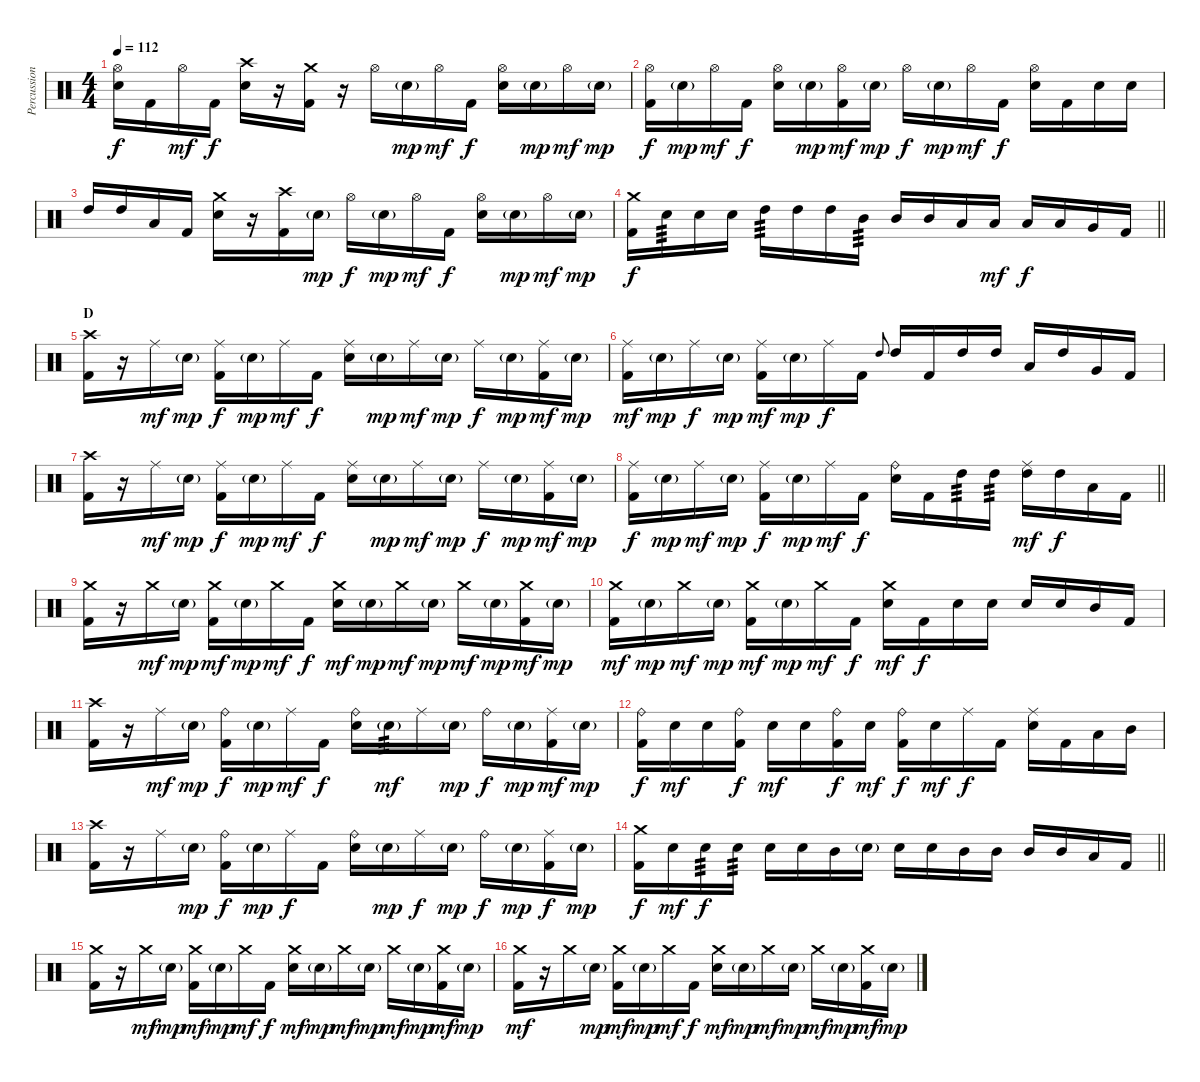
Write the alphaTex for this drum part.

\track ("Percussion" "Percussion") {instrument percussion}
\staff {score}
\articulation defaults
\ts (4 4)
\tempo 112
\clef neutral
\ks c
("Hi-Hat (open)" "Snare (hit) 2").16{dy f} "Kick (hit) 2".16 "Hi-Hat (open)".16{dy mf} "Kick (hit) 2".16{dy f} ("Crash high (hit)" "Snare (hit) 2").16 r.16 ("Crash medium (hit)" "Kick (hit) 2").16 r.16 "Hi-Hat (open)".16 "Snare (hit) 2"{g}.16{dy mp} "Hi-Hat (open)".16{dy mf} "Kick (hit) 2".16{dy f} ("Hi-Hat (open)" "Snare (hit) 2").16 "Snare (hit) 2"{g}.16{dy mp} "Hi-Hat (open)".16{dy mf} "Snare (hit) 2"{g}.16{dy mp} |
("Hi-Hat (open)" "Kick (hit) 2").16{dy f} "Snare (hit) 2"{g}.16{dy mp} "Hi-Hat (open)".16{dy mf} "Kick (hit) 2".16{dy f} ("Hi-Hat (open)" "Snare (hit) 2").16 "Snare (hit) 2"{g}.16{dy mp} ("Hi-Hat (open)" "Kick (hit) 2").16{dy mf} "Snare (hit) 2"{g}.16{dy mp} "Hi-Hat (open)".16{dy f} "Snare (hit) 2"{g}.16{dy mp} "Hi-Hat (open)".16{dy mf} "Kick (hit) 2".16{dy f} ("Hi-Hat (open)" "Snare (hit) 2").16 "Kick (hit) 2".16 "Snare (hit) 2".16 "Snare (hit) 2".16 |
"High Tom (hit)".16 "High Tom (hit)".16 "Low Tom (hit)".16 "Kick (hit) 2".16 ("Crash medium (hit)" "Snare (hit) 2").16 r.16 ("Crash high (hit)" "Kick (hit) 2").16 "Snare (hit) 2"{g}.16{dy mp} "Hi-Hat (open)".16{dy f} "Snare (hit) 2"{g}.16{dy mp} "Hi-Hat (open)".16{dy mf} "Kick (hit) 2".16{dy f} ("Hi-Hat (open)" "Snare (hit) 2").16 "Snare (hit) 2"{g}.16{dy mp} "Hi-Hat (open)".16{dy mf} "Snare (hit) 2"{g}.16{dy mp} |
\barLineRight lightlight
("Crash medium (hit)" "Kick (hit) 2").16{dy f} "Snare (hit) 2".16{tp 3} "Snare (hit) 2".16 "Snare (hit) 2".16 "High Tom (hit)".16{tp 3} "High Tom (hit)".16 "High Tom (hit)".16 "Mid Tom (hit)".16{tp 3} "Mid Tom (hit)".16 "Mid Tom (hit)".16 "Low Tom (hit)".16 "Low Tom (hit)".16{dy mf} "Low Tom (hit)".16{dy f} "Low Tom (hit)".16 "Very Low Tom (hit)".16 "Kick (hit) 2".16 |
\section ("" "D")
("Crash high (hit)" "Kick (hit) 2").16 r.16 "Ride (middle)".16{dy mf} "Snare (hit) 2"{g}.16{dy mp} ("Ride (middle)" "Kick (hit) 2").16{dy f} "Snare (hit) 2"{g}.16{dy mp} "Ride (middle)".16{dy mf} "Kick (hit) 2".16{dy f} ("Ride (middle)" "Snare (hit) 2").16 "Snare (hit) 2"{g}.16{dy mp} "Ride (middle)".16{dy mf} "Snare (hit) 2"{g}.16{dy mp} "Ride (middle)".16{dy f} "Snare (hit) 2"{g}.16{dy mp} ("Ride (middle)" "Kick (hit) 2").16{dy mf} "Snare (hit) 2"{g}.16{dy mp} |
("Ride (middle)" "Kick (hit) 2").16{dy mf} "Snare (hit) 2"{g}.16{dy mp} "Ride (middle)".16{dy f} "Snare (hit) 2"{g}.16{dy mp} ("Ride (middle)" "Kick (hit) 2").16{dy mf} "Snare (hit) 2"{g}.16{dy mp} "Ride (middle)".16{dy f} "Kick (hit) 2".16 "High Tom (hit)".8{gr onbeat} "High Tom (hit)".16 "Kick (hit) 2".16 "High Tom (hit)".16 "High Tom (hit)".16 "Low Tom (hit)".16 "High Tom (hit)".16 "Very Low Tom (hit)".16 "Kick (hit) 2".16 |
("Crash high (hit)" "Kick (hit) 2").16 r.16 "Ride (middle)".16{dy mf} "Snare (hit) 2"{g}.16{dy mp} ("Ride (middle)" "Kick (hit) 2").16{dy f} "Snare (hit) 2"{g}.16{dy mp} "Ride (middle)".16{dy mf} "Kick (hit) 2".16{dy f} ("Ride (middle)" "Snare (hit) 2").16 "Snare (hit) 2"{g}.16{dy mp} "Ride (middle)".16{dy mf} "Snare (hit) 2"{g}.16{dy mp} "Ride (middle)".16{dy f} "Snare (hit) 2"{g}.16{dy mp} ("Ride (middle)" "Kick (hit) 2").16{dy mf} "Snare (hit) 2"{g}.16{dy mp} |
\barLineRight lightlight
("Ride (middle)" "Kick (hit) 2").16{dy f} "Snare (hit) 2"{g}.16{dy mp} "Ride (middle)".16{dy mf} "Snare (hit) 2"{g}.16{dy mp} ("Ride (middle)" "Kick (hit) 2").16{dy f} "Snare (hit) 2"{g}.16{dy mp} "Ride (middle)".16{dy mf} "Kick (hit) 2".16{dy f} ("Ride (bell)" "Snare (hit) 2").16 "Kick (hit) 2".16 "High Tom (hit)".16{tp 3} "High Tom (hit)".16{tp 3} ("Ride (middle)" "High Tom (hit)").16{dy mf} "High Tom (hit)".16{dy f} "Low Tom (hit)".16 "Kick (hit) 2".16 |
("Crash medium (hit)" "Kick (hit) 2").16 r.16 "Crash medium (hit)".16{dy mf} "Snare (hit) 2"{g}.16{dy mp} ("Crash medium (hit)" "Kick (hit) 2").16{dy mf} "Snare (hit) 2"{g}.16{dy mp} "Crash medium (hit)".16{dy mf} "Kick (hit) 2".16{dy f} ("Crash medium (hit)" "Snare (hit) 2").16{dy mf} "Snare (hit) 2"{g}.16{dy mp} "Crash medium (hit)".16{dy mf} "Snare (hit) 2"{g}.16{dy mp} "Crash medium (hit)".16{dy mf} "Snare (hit) 2"{g}.16{dy mp} ("Crash medium (hit)" "Kick (hit) 2").16{dy mf} "Snare (hit) 2"{g}.16{dy mp} |
("Crash medium (hit)" "Kick (hit) 2").16{dy mf} "Snare (hit) 2"{g}.16{dy mp} "Crash medium (hit)".16{dy mf} "Snare (hit) 2"{g}.16{dy mp} ("Crash medium (hit)" "Kick (hit) 2").16{dy mf} "Snare (hit) 2"{g}.16{dy mp} "Crash medium (hit)".16{dy mf} "Kick (hit) 2".16{dy f} ("Crash medium (hit)" "Snare (hit) 2").16{dy mf} "Kick (hit) 2".16{dy f} "Snare (hit) 2".16 "Snare (hit) 2".16 "Snare (hit) 2".16 "Snare (hit) 2".16 "Mid Tom (hit)".16 "Kick (hit) 2".16 |
("Crash high (hit)" "Kick (hit) 2").16 r.16 "Ride (middle)".16{dy mf} "Snare (hit) 2"{g}.16{dy mp} ("Ride (bell)" "Kick (hit) 2").16{dy f} "Snare (hit) 2"{g}.16{dy mp} "Ride (middle)".16{dy mf} "Kick (hit) 2".16{dy f} ("Ride (bell)" "Snare (hit) 2").16 "Snare (hit) 2"{g}.16{tp 3 dy mf} "Ride (middle)".16 "Snare (hit) 2"{g}.16{dy mp} "Ride (bell)".16{dy f} "Snare (hit) 2"{g}.16{dy mp} ("Ride (middle)" "Kick (hit) 2").16{dy mf} "Snare (hit) 2"{g}.16{dy mp} |
("Ride (bell)" "Kick (hit) 2").16{dy f} "Snare (hit) 2".16{dy mf} "Snare (hit) 2".16 ("Ride (bell)" "Kick (hit) 2").16{dy f} "Snare (hit) 2".16{dy mf} "Snare (hit) 2".16 ("Ride (bell)" "Kick (hit) 2").16{dy f} "Snare (hit) 2".16{dy mf} ("Ride (bell)" "Kick (hit) 2").16{dy f} "Snare (hit) 2".16{dy mf} "Ride (middle)".16{dy f} "Kick (hit) 2".16 ("Ride (middle)" "Snare (hit) 2").16 "Kick (hit) 2".16 "Low Tom (hit)".16 "Mid Tom (hit)".16 |
("Crash high (hit)" "Kick (hit) 2").16 r.16 "Ride (middle)".16 "Snare (hit) 2"{g}.16{dy mp} ("Ride (bell)" "Kick (hit) 2").16{dy f} "Snare (hit) 2"{g}.16{dy mp} "Ride (middle)".16{dy f} "Kick (hit) 2".16 ("Ride (bell)" "Snare (hit) 2").16 "Snare (hit) 2"{g}.16{dy mp} "Ride (middle)".16{dy f} "Snare (hit) 2"{g}.16{dy mp} "Ride (bell)".16{dy f} "Snare (hit) 2"{g}.16{dy mp} ("Ride (middle)" "Kick (hit) 2").16{dy f} "Snare (hit) 2"{g}.16{dy mp} |
\barLineRight lightlight
("Crash medium (hit)" "Kick (hit) 2").16{dy f} "Snare (hit) 2".16{dy mf} "Snare (hit) 2".16{tp 3 dy f} "Snare (hit) 2".16{tp 3} "Snare (hit) 2".16 "Snare (hit) 2".16 "Mid Tom (hit)".16 "Snare (hit) 2"{g}.16 "Snare (hit) 2".16 "Snare (hit) 2".16 "Mid Tom (hit)".16 "Mid Tom (hit)".16 "Mid Tom (hit)".16 "Mid Tom (hit)".16 "Low Tom (hit)".16 "Kick (hit) 2".16 |
("Crash medium (hit)" "Kick (hit) 2").16 r.16 "Crash medium (hit)".16{dy mf} "Snare (hit) 2"{g}.16{dy mp} ("Crash medium (hit)" "Kick (hit) 2").16{dy mf} "Snare (hit) 2"{g}.16{dy mp} "Crash medium (hit)".16{dy mf} "Kick (hit) 2".16{dy f} ("Crash medium (hit)" "Snare (hit) 2").16{dy mf} "Snare (hit) 2"{g}.16{dy mp} "Crash medium (hit)".16{dy mf} "Snare (hit) 2"{g}.16{dy mp} "Crash medium (hit)".16{dy mf} "Snare (hit) 2"{g}.16{dy mp} ("Crash medium (hit)" "Kick (hit) 2").16{dy mf} "Snare (hit) 2"{g}.16{dy mp} |
("Crash medium (hit)" "Kick (hit) 2").16{dy mf} r.16 "Crash medium (hit)".16 "Snare (hit) 2"{g}.16{dy mp} ("Crash medium (hit)" "Kick (hit) 2").16{dy mf} "Snare (hit) 2"{g}.16{dy mp} "Crash medium (hit)".16{dy mf} "Kick (hit) 2".16{dy f} ("Crash medium (hit)" "Snare (hit) 2").16{dy mf} "Snare (hit) 2"{g}.16{dy mp} "Crash medium (hit)".16{dy mf} "Snare (hit) 2"{g}.16{dy mp} "Crash medium (hit)".16{dy mf} "Snare (hit) 2"{g}.16{dy mp} ("Crash medium (hit)" "Kick (hit) 2").16{dy mf} "Snare (hit) 2"{g}.16{dy mp}
